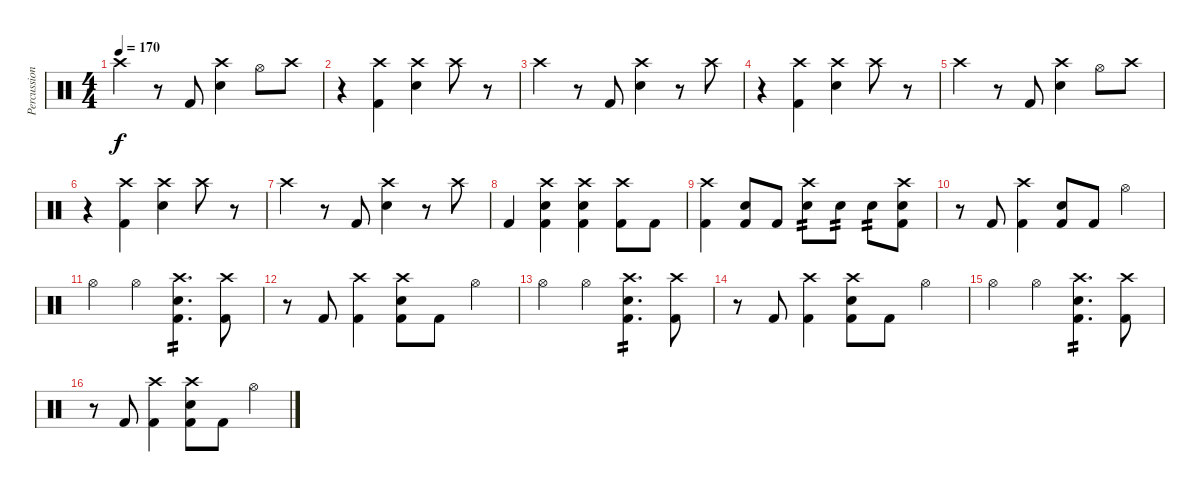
\track ("Percussions" "Percussion") {instrument percussion}
\staff {score}
\articulation defaults
\ts (4 4)
\tempo 170
\clef neutral
\ks c "Crash high (hit)".4{dy f}
r.8 "Kick (hit) 2".8 ("Crash high (hit)" "Electric Snare (hit)").4 "Hi-Hat (open)".8 "Crash high (hit)".8 |
r.4 ("Crash high (hit)" "Kick (hit) 2").4 ("Crash high (hit)" "Electric Snare (hit)").4 "Crash high (hit)".8 r.8 |
"Crash high (hit)".4 r.8 "Kick (hit) 2".8 ("Crash high (hit)" "Electric Snare (hit)").4 r.8 "Crash high (hit)".8 |
r.4 ("Crash high (hit)" "Kick (hit) 2").4 ("Crash high (hit)" "Electric Snare (hit)").4 "Crash high (hit)".8 r.8 |
"Crash high (hit)".4 r.8 "Kick (hit) 2".8 ("Crash high (hit)" "Electric Snare (hit)").4 "Hi-Hat (open)".8 "Crash high (hit)".8 |
r.4 ("Crash high (hit)" "Kick (hit) 2").4 ("Crash high (hit)" "Electric Snare (hit)").4 "Crash high (hit)".8 r.8 |
"Crash high (hit)".4 r.8 "Kick (hit) 2".8 ("Crash high (hit)" "Electric Snare (hit)").4 r.8 "Crash high (hit)".8 |
"Kick (hit) 2".4 ("Crash high (hit)" "Electric Snare (hit)" "Kick (hit) 2").4 ("Crash high (hit)" "Electric Snare (hit)" "Kick (hit) 2").4 ("Crash high (hit)" "Kick (hit) 2").8 "Kick (hit) 2".8 |
("Crash high (hit)" "Kick (hit) 2").4 ("Electric Snare (hit)" "Kick (hit) 2").8 "Kick (hit) 2".8 ("Crash high (hit)" "Electric Snare (hit)").8{tp 2} "Electric Snare (hit)".8{tp 2} "Electric Snare (hit)".8{tp 2} ("Crash high (hit)" "Electric Snare (hit)" "Kick (hit) 2").8 |
r.8 "Kick (hit) 2".8 ("Crash high (hit)" "Kick (hit) 2").4 ("Electric Snare (hit)" "Kick (hit) 2").8 "Kick (hit) 2".8 "Hi-Hat (open)".4 |
"Hi-Hat (open)".4 "Hi-Hat (open)".4 ("Crash high (hit)" "Electric Snare (hit)" "Kick (hit) 2").4{d tp 2} ("Crash high (hit)" "Kick (hit) 2").8 |
r.8 "Kick (hit) 2".8 ("Crash high (hit)" "Kick (hit) 2").4 ("Crash high (hit)" "Electric Snare (hit)" "Kick (hit) 2").8 "Kick (hit) 2".8 "Hi-Hat (open)".4 |
"Hi-Hat (open)".4 "Hi-Hat (open)".4 ("Crash high (hit)" "Electric Snare (hit)" "Kick (hit) 2").4{d tp 2} ("Crash high (hit)" "Kick (hit) 2").8 |
r.8 "Kick (hit) 2".8 ("Crash high (hit)" "Kick (hit) 2").4 ("Crash high (hit)" "Electric Snare (hit)" "Kick (hit) 2").8 "Kick (hit) 2".8 "Hi-Hat (open)".4 |
"Hi-Hat (open)".4 "Hi-Hat (open)".4 ("Crash high (hit)" "Electric Snare (hit)" "Kick (hit) 2").4{d tp 2} ("Crash high (hit)" "Kick (hit) 2").8 |
r.8 "Kick (hit) 2".8 ("Crash high (hit)" "Kick (hit) 2").4 ("Crash high (hit)" "Electric Snare (hit)" "Kick (hit) 2").8 "Kick (hit) 2".8 "Hi-Hat (open)".4
